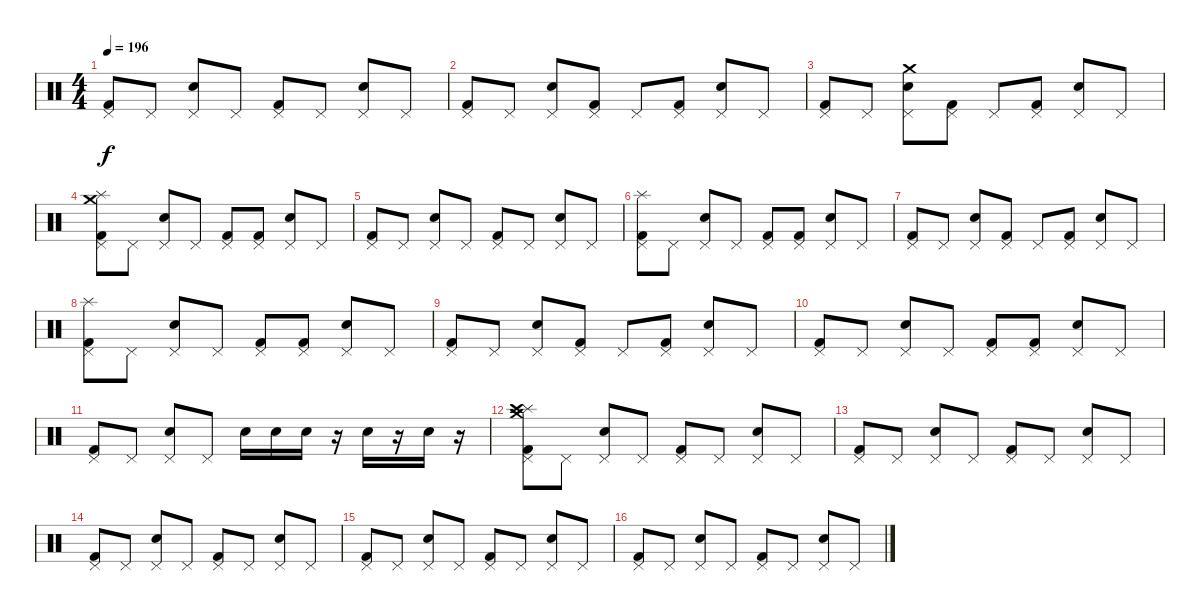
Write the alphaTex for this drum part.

\track "" {instrument percussion}
\staff {score}
\articulation defaults
\ts (4 4)
\tempo 196
\clef neutral
\ks c
("Pedal Hi-Hat (hit)" "Kick (hit) 2").8{dy f} "Pedal Hi-Hat (hit)".8 ("Electric Snare (hit)" "Pedal Hi-Hat (hit)").8 "Pedal Hi-Hat (hit)".8 ("Kick (hit) 2" "Pedal Hi-Hat (hit)").8 "Pedal Hi-Hat (hit)".8 ("Pedal Hi-Hat (hit)" "Electric Snare (hit)").8 "Pedal Hi-Hat (hit)".8 |
("Pedal Hi-Hat (hit)" "Kick (hit) 2").8 "Pedal Hi-Hat (hit)".8 ("Electric Snare (hit)" "Pedal Hi-Hat (hit)").8 ("Kick (hit) 2" "Pedal Hi-Hat (hit)").8 "Pedal Hi-Hat (hit)".8 ("Kick (hit) 2" "Pedal Hi-Hat (hit)").8 ("Electric Snare (hit)" "Pedal Hi-Hat (hit)").8 "Pedal Hi-Hat (hit)".8 |
("Pedal Hi-Hat (hit)" "Kick (hit) 2").8 "Pedal Hi-Hat (hit)".8 ("Crash medium (hit)" "Pedal Hi-Hat (hit)" "Electric Snare (hit)").8 ("Pedal Hi-Hat (hit)" "Kick (hit) 2").8 "Pedal Hi-Hat (hit)".8 ("Pedal Hi-Hat (hit)" "Kick (hit) 2").8 ("Pedal Hi-Hat (hit)" "Electric Snare (hit)").8 "Pedal Hi-Hat (hit)".8 |
("Pedal Hi-Hat (hit)" "Splash (hit)" "Crash medium (hit)" "Kick (hit) 2").8 "Pedal Hi-Hat (hit)".8 ("Electric Snare (hit)" "Pedal Hi-Hat (hit)").8 "Pedal Hi-Hat (hit)".8 ("Kick (hit) 2" "Pedal Hi-Hat (hit)").8 ("Kick (hit) 2" "Pedal Hi-Hat (hit)").8 ("Electric Snare (hit)" "Pedal Hi-Hat (hit)").8 "Pedal Hi-Hat (hit)".8 |
("Pedal Hi-Hat (hit)" "Kick (hit) 2").8 "Pedal Hi-Hat (hit)".8 ("Electric Snare (hit)" "Pedal Hi-Hat (hit)").8 "Pedal Hi-Hat (hit)".8 ("Kick (hit) 2" "Pedal Hi-Hat (hit)").8 "Pedal Hi-Hat (hit)".8 ("Pedal Hi-Hat (hit)" "Electric Snare (hit)").8 "Pedal Hi-Hat (hit)".8 |
("Splash (hit)" "Pedal Hi-Hat (hit)" "Kick (hit) 2").8 "Pedal Hi-Hat (hit)".8 ("Electric Snare (hit)" "Pedal Hi-Hat (hit)").8 "Pedal Hi-Hat (hit)".8 ("Kick (hit) 2" "Pedal Hi-Hat (hit)").8 ("Kick (hit) 2" "Pedal Hi-Hat (hit)").8 ("Pedal Hi-Hat (hit)" "Electric Snare (hit)").8 "Pedal Hi-Hat (hit)".8 |
("Pedal Hi-Hat (hit)" "Kick (hit) 2").8 "Pedal Hi-Hat (hit)".8 ("Electric Snare (hit)" "Pedal Hi-Hat (hit)").8 ("Kick (hit) 2" "Pedal Hi-Hat (hit)").8 "Pedal Hi-Hat (hit)".8 ("Kick (hit) 2" "Pedal Hi-Hat (hit)").8 ("Pedal Hi-Hat (hit)" "Electric Snare (hit)").8 "Pedal Hi-Hat (hit)".8 |
("Splash (hit)" "Pedal Hi-Hat (hit)" "Kick (hit) 2").8 "Pedal Hi-Hat (hit)".8 ("Electric Snare (hit)" "Pedal Hi-Hat (hit)").8 "Pedal Hi-Hat (hit)".8 ("Kick (hit) 2" "Pedal Hi-Hat (hit)").8 ("Kick (hit) 2" "Pedal Hi-Hat (hit)").8 ("Pedal Hi-Hat (hit)" "Electric Snare (hit)").8 "Pedal Hi-Hat (hit)".8 |
("Pedal Hi-Hat (hit)" "Kick (hit) 2").8 "Pedal Hi-Hat (hit)".8 ("Electric Snare (hit)" "Pedal Hi-Hat (hit)").8 ("Kick (hit) 2" "Pedal Hi-Hat (hit)").8 "Pedal Hi-Hat (hit)".8 ("Kick (hit) 2" "Pedal Hi-Hat (hit)").8 ("Pedal Hi-Hat (hit)" "Electric Snare (hit)").8 "Pedal Hi-Hat (hit)".8 |
("Pedal Hi-Hat (hit)" "Kick (hit) 2").8 "Pedal Hi-Hat (hit)".8 ("Electric Snare (hit)" "Pedal Hi-Hat (hit)").8 "Pedal Hi-Hat (hit)".8 ("Kick (hit) 2" "Pedal Hi-Hat (hit)").8 ("Kick (hit) 2" "Pedal Hi-Hat (hit)").8 ("Electric Snare (hit)" "Pedal Hi-Hat (hit)").8 "Pedal Hi-Hat (hit)".8 |
("Kick (hit) 2" "Pedal Hi-Hat (hit)").8 "Pedal Hi-Hat (hit)".8 ("Electric Snare (hit)" "Pedal Hi-Hat (hit)").8 "Pedal Hi-Hat (hit)".8 "Electric Snare (hit)".16 "Electric Snare (hit)".16 "Electric Snare (hit)".16 r.16 "Electric Snare (hit)".16 r.16 "Electric Snare (hit)".16 r.16 |
("Pedal Hi-Hat (hit)" "Splash (hit)" "Crash medium (hit)" "Crash high (hit)" "Kick (hit) 2").8 "Pedal Hi-Hat (hit)".8 ("Electric Snare (hit)" "Pedal Hi-Hat (hit)").8 "Pedal Hi-Hat (hit)".8 ("Kick (hit) 2" "Pedal Hi-Hat (hit)").8 "Pedal Hi-Hat (hit)".8 ("Electric Snare (hit)" "Pedal Hi-Hat (hit)").8 "Pedal Hi-Hat (hit)".8 |
("Pedal Hi-Hat (hit)" "Kick (hit) 2").8 "Pedal Hi-Hat (hit)".8 ("Electric Snare (hit)" "Pedal Hi-Hat (hit)").8 "Pedal Hi-Hat (hit)".8 ("Kick (hit) 2" "Pedal Hi-Hat (hit)").8 "Pedal Hi-Hat (hit)".8 ("Pedal Hi-Hat (hit)" "Electric Snare (hit)").8 "Pedal Hi-Hat (hit)".8 |
("Pedal Hi-Hat (hit)" "Kick (hit) 2").8 "Pedal Hi-Hat (hit)".8 ("Electric Snare (hit)" "Pedal Hi-Hat (hit)").8 "Pedal Hi-Hat (hit)".8 ("Kick (hit) 2" "Pedal Hi-Hat (hit)").8 "Pedal Hi-Hat (hit)".8 ("Pedal Hi-Hat (hit)" "Electric Snare (hit)").8 "Pedal Hi-Hat (hit)".8 |
("Pedal Hi-Hat (hit)" "Kick (hit) 2").8 "Pedal Hi-Hat (hit)".8 ("Electric Snare (hit)" "Pedal Hi-Hat (hit)").8 "Pedal Hi-Hat (hit)".8 ("Kick (hit) 2" "Pedal Hi-Hat (hit)").8 "Pedal Hi-Hat (hit)".8 ("Pedal Hi-Hat (hit)" "Electric Snare (hit)").8 "Pedal Hi-Hat (hit)".8 |
("Pedal Hi-Hat (hit)" "Kick (hit) 2").8 "Pedal Hi-Hat (hit)".8 ("Electric Snare (hit)" "Pedal Hi-Hat (hit)").8 "Pedal Hi-Hat (hit)".8 ("Kick (hit) 2" "Pedal Hi-Hat (hit)").8 "Pedal Hi-Hat (hit)".8 ("Pedal Hi-Hat (hit)" "Electric Snare (hit)").8 "Pedal Hi-Hat (hit)".8
